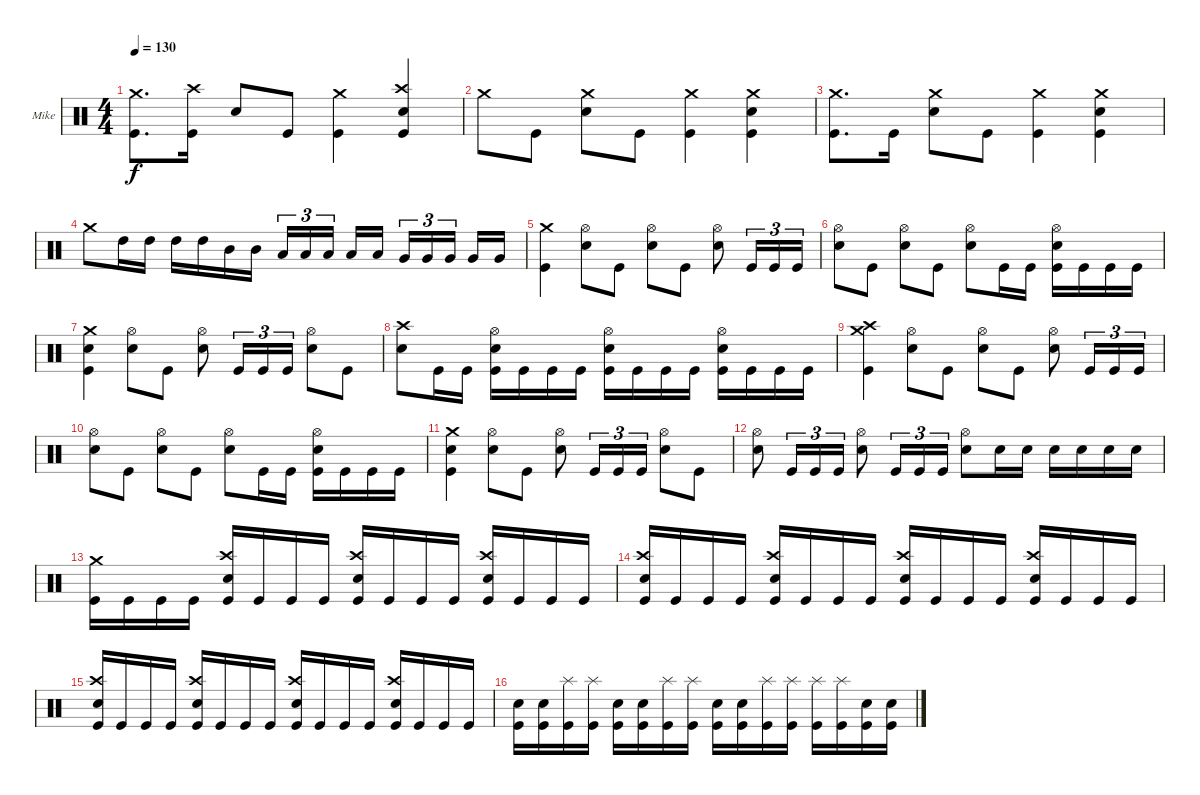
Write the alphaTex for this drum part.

\defaultSystemsLayout 4
\bracketExtendMode groupsimilarinstruments
\firstSystemTrackNameOrientation horizontal
\otherSystemsTrackNameOrientation horizontal
\track ("Mike Portnoy" "Mike") {instrument percussion}
\staff {score}
\articulation defaults
\ts (4 4)
\tempo 130
\clef neutral
\ks c
("Crash medium (hit)" "Kick (hit)").8{d dy f} ("Crash high (hit)" "Kick (hit)").16 "Snare (hit) 2".8 "Kick (hit)".8 ("Crash medium (hit)" "Kick (hit)").4 ("Crash high (hit)" "Snare (hit) 2" "Kick (hit)").4 |
"Crash medium (hit)".8 "Kick (hit)".8 ("Crash medium (hit)" "Snare (hit) 2").8 "Kick (hit)".8 ("Crash medium (hit)" "Kick (hit)").4 ("Crash medium (hit)" "Snare (hit) 2" "Kick (hit)").4 |
("Crash medium (hit)" "Kick (hit)").8{d} "Kick (hit)".16 ("Crash medium (hit)" "Snare (hit) 2").8 "Kick (hit)".8 ("Crash medium (hit)" "Kick (hit)").4 ("Crash medium (hit)" "Snare (hit) 2" "Kick (hit)").4 |
"Crash medium (hit)".8 "High Tom (hit)".16 "High Tom (hit)".16 "High Tom (hit)".16 "High Tom (hit)".16 "Mid Tom (hit)".16 "Mid Tom (hit)".16 "Low Tom (hit)".16{tu (3 2)} "Low Tom (hit)".16{tu (3 2)} "Low Tom (hit)".16{tu (3 2)} "Low Tom (hit)".16 "Low Tom (hit)".16 "Very Low Tom (hit)".16{tu (3 2)} "Very Low Tom (hit)".16{tu (3 2)} "Very Low Tom (hit)".16{tu (3 2)} "Very Low Tom (hit)".16 "Very Low Tom (hit)".16 |
("Crash medium (hit)" "Kick (hit)").4 ("Hi-Hat (open)" "Snare (hit) 2").8 "Kick (hit)".8 ("Hi-Hat (open)" "Snare (hit) 2").8 "Kick (hit)".8 ("Hi-Hat (open)" "Snare (hit) 2").8 "Kick (hit)".16{tu (3 2)} "Kick (hit)".16{tu (3 2)} "Kick (hit)".16{tu (3 2)} |
("Hi-Hat (open)" "Snare (hit) 2").8 "Kick (hit)".8 ("Hi-Hat (open)" "Snare (hit) 2").8 "Kick (hit)".8 ("Hi-Hat (open)" "Snare (hit) 2").8 "Kick (hit)".16 "Kick (hit)".16 ("Hi-Hat (open)" "Snare (hit) 2" "Kick (hit)").16 "Kick (hit)".16 "Kick (hit)".16 "Kick (hit)".16 |
("Crash medium (hit)" "Snare (hit) 2" "Kick (hit)").4 ("Hi-Hat (open)" "Snare (hit) 2").8 "Kick (hit)".8 ("Hi-Hat (open)" "Snare (hit) 2").8 "Kick (hit)".16{tu (3 2)} "Kick (hit)".16{tu (3 2)} "Kick (hit)".16{tu (3 2)} ("Hi-Hat (open)" "Snare (hit) 2").8 "Kick (hit)".8 |
("Crash high (hit)" "Snare (hit) 2").8 "Kick (hit)".16 "Kick (hit)".16 ("Hi-Hat (open)" "Snare (hit) 2" "Kick (hit)").16 "Kick (hit)".16 "Kick (hit)".16 "Kick (hit)".16 ("Hi-Hat (open)" "Snare (hit) 2" "Kick (hit)").16 "Kick (hit)".16 "Kick (hit)".16 "Kick (hit)".16 ("Hi-Hat (open)" "Snare (hit) 2" "Kick (hit)").16 "Kick (hit)".16 "Kick (hit)".16 "Kick (hit)".16 |
("Crash medium (hit)" "Crash high (hit)" "Kick (hit)").4 ("Hi-Hat (open)" "Snare (hit) 2").8 "Kick (hit)".8 ("Hi-Hat (open)" "Snare (hit) 2").8 "Kick (hit)".8 ("Hi-Hat (open)" "Snare (hit) 2").8 "Kick (hit)".16{tu (3 2)} "Kick (hit)".16{tu (3 2)} "Kick (hit)".16{tu (3 2)} |
("Hi-Hat (open)" "Snare (hit) 2").8 "Kick (hit)".8 ("Hi-Hat (open)" "Snare (hit) 2").8 "Kick (hit)".8 ("Hi-Hat (open)" "Snare (hit) 2").8 "Kick (hit)".16 "Kick (hit)".16 ("Hi-Hat (open)" "Snare (hit) 2" "Kick (hit)").16 "Kick (hit)".16 "Kick (hit)".16 "Kick (hit)".16 |
("Crash medium (hit)" "Snare (hit) 2" "Kick (hit)").4 ("Hi-Hat (open)" "Snare (hit) 2").8 "Kick (hit)".8 ("Hi-Hat (open)" "Snare (hit) 2").8 "Kick (hit)".16{tu (3 2)} "Kick (hit)".16{tu (3 2)} "Kick (hit)".16{tu (3 2)} ("Hi-Hat (open)" "Snare (hit) 2").8 "Kick (hit)".8 |
("Hi-Hat (open)" "Snare (hit) 2").8 "Kick (hit)".16{tu (3 2)} "Kick (hit)".16{tu (3 2)} "Kick (hit)".16{tu (3 2)} ("Hi-Hat (open)" "Snare (hit) 2").8 "Kick (hit)".16{tu (3 2)} "Kick (hit)".16{tu (3 2)} "Kick (hit)".16{tu (3 2)} ("Hi-Hat (open)" "Snare (hit) 2").8 "Snare (hit) 2".16 "Snare (hit) 2".16 "Snare (hit) 2".16 "Snare (hit) 2".16 "Snare (hit) 2".16 "Snare (hit) 2".16 |
("Crash medium (hit)" "Kick (hit)").16 "Kick (hit)".16 "Kick (hit)".16 "Kick (hit)".16 ("Crash high (hit)" "Snare (hit) 2" "Kick (hit)").16 "Kick (hit)".16 "Kick (hit)".16 "Kick (hit)".16 ("Crash high (hit)" "Snare (hit) 2" "Kick (hit)").16 "Kick (hit)".16 "Kick (hit)".16 "Kick (hit)".16 ("Crash high (hit)" "Snare (hit) 2" "Kick (hit)").16 "Kick (hit)".16 "Kick (hit)".16 "Kick (hit)".16 |
("Crash high (hit)" "Snare (hit) 2" "Kick (hit)").16 "Kick (hit)".16 "Kick (hit)".16 "Kick (hit)".16 ("Crash high (hit)" "Snare (hit) 2" "Kick (hit)").16 "Kick (hit)".16 "Kick (hit)".16 "Kick (hit)".16 ("Crash high (hit)" "Snare (hit) 2" "Kick (hit)").16 "Kick (hit)".16 "Kick (hit)".16 "Kick (hit)".16 ("Crash high (hit)" "Snare (hit) 2" "Kick (hit)").16 "Kick (hit)".16 "Kick (hit)".16 "Kick (hit)".16 |
("Crash high (hit)" "Snare (hit) 2" "Kick (hit)").16 "Kick (hit)".16 "Kick (hit)".16 "Kick (hit)".16 ("Crash high (hit)" "Snare (hit) 2" "Kick (hit)").16 "Kick (hit)".16 "Kick (hit)".16 "Kick (hit)".16 ("Crash high (hit)" "Snare (hit) 2" "Kick (hit)").16 "Kick (hit)".16 "Kick (hit)".16 "Kick (hit)".16 ("Crash high (hit)" "Snare (hit) 2" "Kick (hit)").16 "Kick (hit)".16 "Kick (hit)".16 "Kick (hit)".16 |
("Snare (hit) 2" "Kick (hit)").16 ("Snare (hit) 2" "Kick (hit)").16 ("Splash (hit)" "Kick (hit)").16 ("Splash (hit)" "Kick (hit)").16 ("Snare (hit) 2" "Kick (hit)").16 ("Snare (hit) 2" "Kick (hit)").16 ("Splash (hit)" "Kick (hit)").16 ("Splash (hit)" "Kick (hit)").16 ("Snare (hit) 2" "Kick (hit)").16 ("Snare (hit) 2" "Kick (hit)").16 ("Splash (hit)" "Kick (hit)").16 ("Splash (hit)" "Kick (hit)").16 ("Splash (hit)" "Kick (hit)").16 ("Splash (hit)" "Kick (hit)").16 ("Snare (hit) 2" "Kick (hit)").16 ("Snare (hit) 2" "Kick (hit)").16
